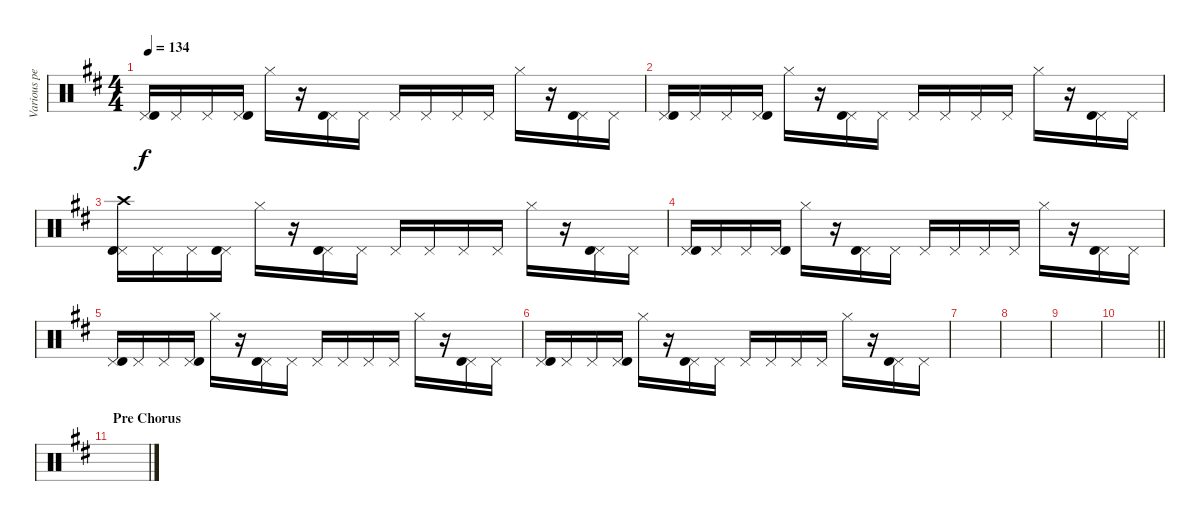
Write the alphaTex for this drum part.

\track ("Various percussion" "Various pe") {instrument percussion}
\staff {score}
\articulation defaults
\ts (4 4)
\tempo 134
\clef neutral
\ks bminor
("Pedal Hi-Hat (hit)" "Timbale high (hit)").16{dy f} "Pedal Hi-Hat (hit)".16 "Pedal Hi-Hat (hit)".16 ("Pedal Hi-Hat (hit)" "Timbale high (hit)").16 "Hi-Hat (closed)".16 r.16 ("Pedal Hi-Hat (hit)" "Timbale high (hit)").16 "Pedal Hi-Hat (hit)".16 "Pedal Hi-Hat (hit)".16 "Pedal Hi-Hat (hit)".16 "Pedal Hi-Hat (hit)".16 "Pedal Hi-Hat (hit)".16 "Hi-Hat (closed)".16 r.16 ("Pedal Hi-Hat (hit)" "Timbale high (hit)").16 "Pedal Hi-Hat (hit)".16 |
("Pedal Hi-Hat (hit)" "Timbale high (hit)").16 "Pedal Hi-Hat (hit)".16 "Pedal Hi-Hat (hit)".16 ("Pedal Hi-Hat (hit)" "Timbale high (hit)").16 "Hi-Hat (closed)".16 r.16 ("Pedal Hi-Hat (hit)" "Timbale high (hit)").16 "Pedal Hi-Hat (hit)".16 "Pedal Hi-Hat (hit)".16 "Pedal Hi-Hat (hit)".16 "Pedal Hi-Hat (hit)".16 "Pedal Hi-Hat (hit)".16 "Hi-Hat (closed)".16 r.16 ("Pedal Hi-Hat (hit)" "Timbale high (hit)").16 "Pedal Hi-Hat (hit)".16 |
("Pedal Hi-Hat (hit)" "Timbale high (hit)" "Crash high (hit)").16 "Pedal Hi-Hat (hit)".16 "Pedal Hi-Hat (hit)".16 ("Pedal Hi-Hat (hit)" "Timbale high (hit)").16 "Hi-Hat (closed)".16 r.16 ("Pedal Hi-Hat (hit)" "Timbale high (hit)").16 "Pedal Hi-Hat (hit)".16 "Pedal Hi-Hat (hit)".16 "Pedal Hi-Hat (hit)".16 "Pedal Hi-Hat (hit)".16 "Pedal Hi-Hat (hit)".16 "Hi-Hat (closed)".16 r.16 ("Pedal Hi-Hat (hit)" "Timbale high (hit)").16 "Pedal Hi-Hat (hit)".16 |
("Pedal Hi-Hat (hit)" "Timbale high (hit)").16 "Pedal Hi-Hat (hit)".16 "Pedal Hi-Hat (hit)".16 ("Pedal Hi-Hat (hit)" "Timbale high (hit)").16 "Hi-Hat (closed)".16 r.16 ("Pedal Hi-Hat (hit)" "Timbale high (hit)").16 "Pedal Hi-Hat (hit)".16 "Pedal Hi-Hat (hit)".16 "Pedal Hi-Hat (hit)".16 "Pedal Hi-Hat (hit)".16 "Pedal Hi-Hat (hit)".16 "Hi-Hat (closed)".16 r.16 ("Pedal Hi-Hat (hit)" "Timbale high (hit)").16 "Pedal Hi-Hat (hit)".16 |
("Pedal Hi-Hat (hit)" "Timbale high (hit)").16 "Pedal Hi-Hat (hit)".16 "Pedal Hi-Hat (hit)".16 ("Pedal Hi-Hat (hit)" "Timbale high (hit)").16 "Hi-Hat (closed)".16 r.16 ("Pedal Hi-Hat (hit)" "Timbale high (hit)").16 "Pedal Hi-Hat (hit)".16 "Pedal Hi-Hat (hit)".16 "Pedal Hi-Hat (hit)".16 "Pedal Hi-Hat (hit)".16 "Pedal Hi-Hat (hit)".16 "Hi-Hat (closed)".16 r.16 ("Pedal Hi-Hat (hit)" "Timbale high (hit)").16 "Pedal Hi-Hat (hit)".16 |
("Pedal Hi-Hat (hit)" "Timbale high (hit)").16 "Pedal Hi-Hat (hit)".16 "Pedal Hi-Hat (hit)".16 ("Pedal Hi-Hat (hit)" "Timbale high (hit)").16 "Hi-Hat (closed)".16 r.16 ("Pedal Hi-Hat (hit)" "Timbale high (hit)").16 "Pedal Hi-Hat (hit)".16 "Pedal Hi-Hat (hit)".16 "Pedal Hi-Hat (hit)".16 "Pedal Hi-Hat (hit)".16 "Pedal Hi-Hat (hit)".16 "Hi-Hat (closed)".16 r.16 ("Pedal Hi-Hat (hit)" "Timbale high (hit)").16 "Pedal Hi-Hat (hit)".16 |
|
|
|
\barLineRight lightlight
|
\section ("" "Pre Chorus")
